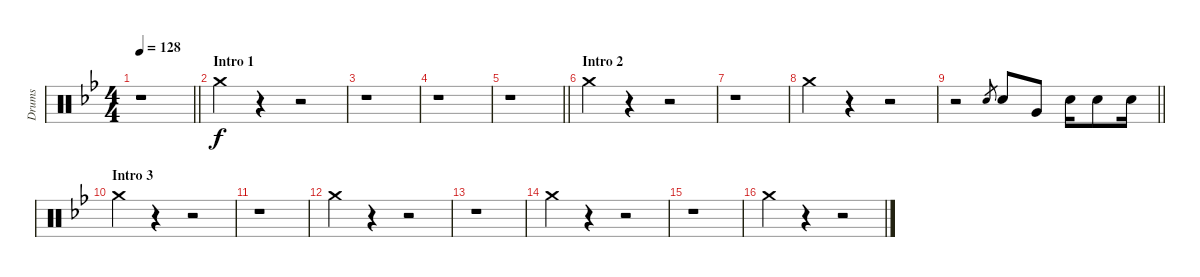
\track ("Drums" "Drums") {instrument percussion}
\staff {score}
\articulation defaults
\ts (4 4)
\tempo 128
\clef neutral
\barLineRight lightlight
\ks gminor
r.1{dy f} |
\section ("" "Intro 1")
"Crash medium (hit)".4 r.4 r.2 |
r.1 |
r.1 |
\barLineRight lightlight
r.1 |
\section ("" "Intro 2")
"Crash medium (hit)".4 r.4 r.2 |
r.1 |
"Crash medium (hit)".4 r.4 r.2 |
\barLineRight lightlight
r.2 "Electric Snare (hit)".8{gr} "Electric Snare (hit)".8 "Very Low Tom (hit)".8 "Electric Snare (hit)".16 "Electric Snare (hit)".8 "Electric Snare (hit)".16 |
\section ("" "Intro 3")
"Crash medium (hit)".4 r.4 r.2 |
r.1 |
"Crash medium (hit)".4 r.4 r.2 |
r.1 |
"Crash medium (hit)".4 r.4 r.2 |
r.1 |
"Crash medium (hit)".4 r.4 r.2
